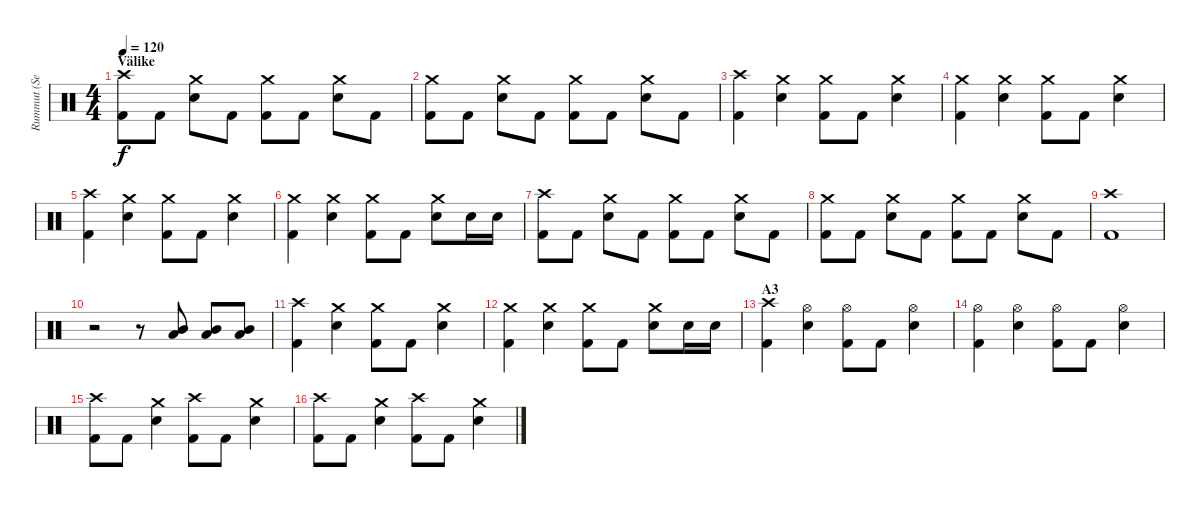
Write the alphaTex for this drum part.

\track ("Rummut (Seppo Pohjolainen)" "Rummut (Se") {instrument percussion}
\staff {score}
\articulation defaults
\ts (4 4)
\section ("" "Välike")
\tempo 120
\clef neutral
\ks c
("Crash high (hit)" "Kick (hit) 2").8{dy f} "Kick (hit) 2".8 ("Crash medium (hit)" "Electric Snare (hit)").8 "Kick (hit) 2".8 ("Crash medium (hit)" "Kick (hit) 2").8 "Kick (hit) 2".8 ("Crash medium (hit)" "Electric Snare (hit)").8 "Kick (hit) 2".8 |
("Crash medium (hit)" "Kick (hit) 2").8 "Kick (hit) 2".8 ("Crash medium (hit)" "Electric Snare (hit)").8 "Kick (hit) 2".8 ("Crash medium (hit)" "Kick (hit) 2").8 "Kick (hit) 2".8 ("Crash medium (hit)" "Electric Snare (hit)").8 "Kick (hit) 2".8 |
("Crash high (hit)" "Kick (hit) 2").4 ("Crash medium (hit)" "Electric Snare (hit)").4 ("Crash medium (hit)" "Kick (hit) 2").8 "Kick (hit) 2".8 ("Crash medium (hit)" "Electric Snare (hit)").4 |
("Crash medium (hit)" "Kick (hit) 2").4 ("Crash medium (hit)" "Electric Snare (hit)").4 ("Crash medium (hit)" "Kick (hit) 2").8 "Kick (hit) 2".8 ("Crash medium (hit)" "Electric Snare (hit)").4 |
("Crash high (hit)" "Kick (hit) 2").4 ("Crash medium (hit)" "Electric Snare (hit)").4 ("Crash medium (hit)" "Kick (hit) 2").8 "Kick (hit) 2".8 ("Crash medium (hit)" "Electric Snare (hit)").4 |
("Crash medium (hit)" "Kick (hit) 2").4 ("Crash medium (hit)" "Electric Snare (hit)").4 ("Crash medium (hit)" "Kick (hit) 2").8 "Kick (hit) 2".8 ("Crash medium (hit)" "Electric Snare (hit)").8 "Electric Snare (hit)".16 "Electric Snare (hit)".16 |
("Crash high (hit)" "Kick (hit) 2").8 "Kick (hit) 2".8 ("Crash medium (hit)" "Electric Snare (hit)").8 "Kick (hit) 2".8 ("Crash medium (hit)" "Kick (hit) 2").8 "Kick (hit) 2".8 ("Crash medium (hit)" "Electric Snare (hit)").8 "Kick (hit) 2".8 |
("Crash medium (hit)" "Kick (hit) 2").8 "Kick (hit) 2".8 ("Crash medium (hit)" "Electric Snare (hit)").8 "Kick (hit) 2".8 ("Crash medium (hit)" "Kick (hit) 2").8 "Kick (hit) 2".8 ("Crash medium (hit)" "Electric Snare (hit)").8 "Kick (hit) 2".8 |
("Crash high (hit)" "Kick (hit) 2").1 |
r.2 r.8 ("Mid Tom (hit)" "Low Floor Tom (hit)").8 ("Mid Tom (hit)" "Low Floor Tom (hit)").8 ("Mid Tom (hit)" "Low Floor Tom (hit)").8 |
("Crash high (hit)" "Kick (hit) 2").4 ("Crash medium (hit)" "Electric Snare (hit)").4 ("Crash medium (hit)" "Kick (hit) 2").8 "Kick (hit) 2".8 ("Crash medium (hit)" "Electric Snare (hit)").4 |
("Crash medium (hit)" "Kick (hit) 2").4 ("Crash medium (hit)" "Electric Snare (hit)").4 ("Crash medium (hit)" "Kick (hit) 2").8 "Kick (hit) 2".8 ("Crash medium (hit)" "Electric Snare (hit)").8 "Electric Snare (hit)".16 "Electric Snare (hit)".16 |
\section ("" "A3")
("Crash high (hit)" "Kick (hit) 2").4 ("Hi-Hat (open)" "Electric Snare (hit)").4 ("Hi-Hat (open)" "Kick (hit) 2").8 "Kick (hit) 2".8 ("Hi-Hat (open)" "Electric Snare (hit)").4 |
("Hi-Hat (open)" "Kick (hit) 2").4 ("Hi-Hat (open)" "Electric Snare (hit)").4 ("Hi-Hat (open)" "Kick (hit) 2").8 "Kick (hit) 2".8 ("Hi-Hat (open)" "Electric Snare (hit)").4 |
("Crash high (hit)" "Kick (hit) 2").8 "Kick (hit) 2".8 ("Crash medium (hit)" "Electric Snare (hit)").4 ("Crash high (hit)" "Kick (hit) 2").8 "Kick (hit) 2".8 ("Crash medium (hit)" "Electric Snare (hit)").4 |
("Crash high (hit)" "Kick (hit) 2").8 "Kick (hit) 2".8 ("Crash medium (hit)" "Electric Snare (hit)").4 ("Crash high (hit)" "Kick (hit) 2").8 "Kick (hit) 2".8 ("Crash medium (hit)" "Electric Snare (hit)").4
